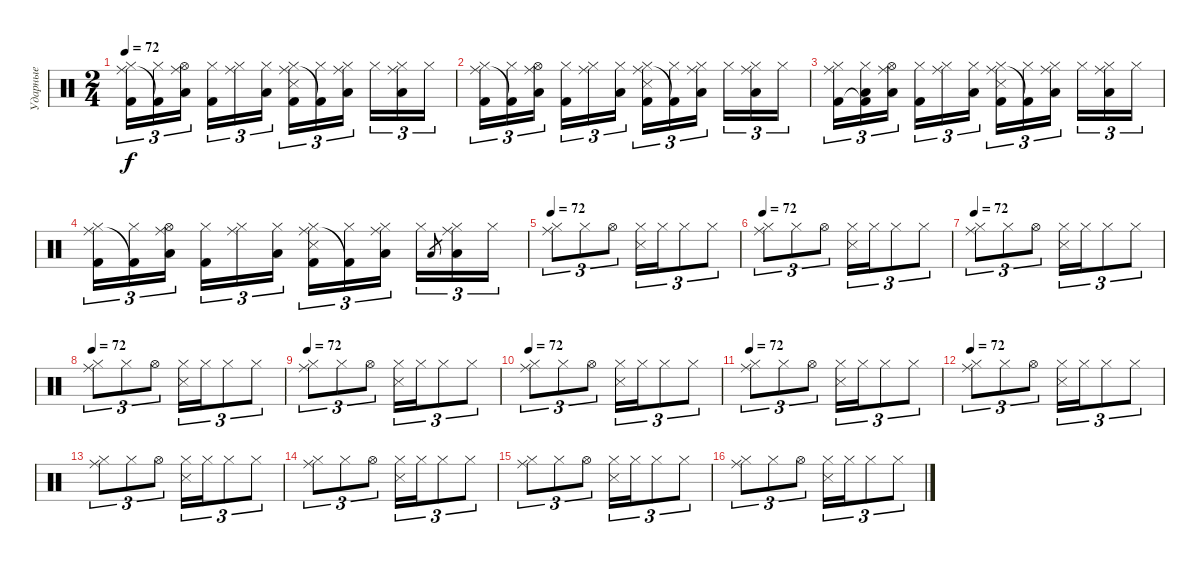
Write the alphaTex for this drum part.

\track ("Ударные" "Ударные") {instrument percussion}
\staff {score}
\articulation defaults
\ts (2 4)
\tempo 72
\clef neutral
\ks c
("Hi-Hat (closed)" "Ride (middle)" "Kick (hit) 2").16{tu (3 2) dy f} ("Hi-Hat (closed)" "Kick (hit) 2"{t}).16{tu (3 2)} ("Hi-Hat (open)" "Ride (middle)" "Low Tom (hit)").16{tu (3 2)} ("Hi-Hat (closed)" "Kick (hit) 2").16{tu (3 2)} ("Hi-Hat (closed)" "Ride (middle)").16{tu (3 2)} ("Hi-Hat (closed)" "Low Tom (hit)").16{tu (3 2)} ("Hi-Hat (closed)" "Ride (middle)" "Snare (side stick) 3" "Kick (hit) 2").16{tu (3 2)} ("Hi-Hat (closed)" "Kick (hit) 2"{t}).16{tu (3 2)} ("Hi-Hat (closed)" "Ride (middle)" "Low Tom (hit)").16{tu (3 2)} "Hi-Hat (closed)".16{tu (3 2)} ("Hi-Hat (closed)" "Ride (middle)" "Low Tom (hit)").16{tu (3 2)} "Hi-Hat (closed)".16{tu (3 2)} |
("Hi-Hat (closed)" "Ride (middle)" "Kick (hit) 2").16{tu (3 2)} ("Hi-Hat (closed)" "Kick (hit) 2"{t}).16{tu (3 2)} ("Hi-Hat (open)" "Ride (middle)" "Low Tom (hit)").16{tu (3 2)} ("Hi-Hat (closed)" "Kick (hit) 2").16{tu (3 2)} ("Hi-Hat (closed)" "Ride (middle)").16{tu (3 2)} ("Hi-Hat (closed)" "Low Tom (hit)").16{tu (3 2)} ("Hi-Hat (closed)" "Ride (middle)" "Snare (side stick) 3" "Kick (hit) 2").16{tu (3 2)} ("Hi-Hat (closed)" "Kick (hit) 2"{t}).16{tu (3 2)} ("Hi-Hat (closed)" "Ride (middle)" "Low Tom (hit)").16{tu (3 2)} "Hi-Hat (closed)".16{tu (3 2)} ("Hi-Hat (closed)" "Ride (middle)" "Low Tom (hit)").16{tu (3 2)} "Hi-Hat (closed)".16{tu (3 2)} |
("Hi-Hat (closed)" "Ride (middle)" "Kick (hit) 2").16{tu (3 2)} ("Hi-Hat (closed)" "Low Tom (hit)" "Kick (hit) 2"{t}).16{tu (3 2)} ("Hi-Hat (open)" "Ride (middle)" "Low Tom (hit)").16{tu (3 2)} ("Hi-Hat (closed)" "Kick (hit) 2").16{tu (3 2)} ("Hi-Hat (closed)" "Ride (middle)").16{tu (3 2)} ("Hi-Hat (closed)" "Low Tom (hit)").16{tu (3 2)} ("Hi-Hat (closed)" "Ride (middle)" "Snare (side stick) 3" "Kick (hit) 2").16{tu (3 2)} ("Hi-Hat (closed)" "Kick (hit) 2"{t}).16{tu (3 2)} ("Hi-Hat (closed)" "Ride (middle)" "Low Tom (hit)").16{tu (3 2)} "Hi-Hat (closed)".16{tu (3 2)} ("Hi-Hat (closed)" "Ride (middle)" "Low Tom (hit)").16{tu (3 2)} "Hi-Hat (closed)".16{tu (3 2)} |
("Hi-Hat (closed)" "Ride (middle)" "Kick (hit) 2").16{tu (3 2)} ("Hi-Hat (closed)" "Kick (hit) 2"{t}).16{tu (3 2)} ("Hi-Hat (open)" "Ride (middle)" "Low Tom (hit)").16{tu (3 2)} ("Hi-Hat (closed)" "Kick (hit) 2").16{tu (3 2)} ("Hi-Hat (closed)" "Ride (middle)").16{tu (3 2)} ("Hi-Hat (closed)" "Low Tom (hit)").16{tu (3 2)} ("Hi-Hat (closed)" "Ride (middle)" "Snare (side stick) 3" "Kick (hit) 2").16{tu (3 2)} ("Hi-Hat (closed)" "Kick (hit) 2"{t}).16{tu (3 2)} ("Hi-Hat (closed)" "Ride (middle)" "Low Tom (hit)").16{tu (3 2)} "Hi-Hat (closed)".16{tu (3 2)} "Low Tom (hit)".8{gr} ("Hi-Hat (closed)" "Ride (middle)" "Low Tom (hit)"{tr (24 16)}).16{tu (3 2)} "Hi-Hat (closed)".16{tu (3 2)} |
\tempo 72
("Hi-Hat (closed)" "Ride (middle)").8{tu (3 2)} "Hi-Hat (closed)".8{tu (3 2)} "Hi-Hat (open)".8{tu (3 2)} ("Hi-Hat (closed)" "Snare (side stick) 3").16{tu (3 2)} "Hi-Hat (closed)".16{tu (3 2)} "Hi-Hat (closed)".8{tu (3 2)} "Hi-Hat (closed)".8{tu (3 2)} |
\tempo 72
("Hi-Hat (closed)" "Ride (middle)").8{tu (3 2)} "Hi-Hat (closed)".8{tu (3 2)} "Hi-Hat (open)".8{tu (3 2)} ("Hi-Hat (closed)" "Snare (side stick) 3").16{tu (3 2)} "Hi-Hat (closed)".16{tu (3 2)} "Hi-Hat (closed)".8{tu (3 2)} "Hi-Hat (closed)".8{tu (3 2)} |
\tempo 72
("Hi-Hat (closed)" "Ride (middle)").8{tu (3 2)} "Hi-Hat (closed)".8{tu (3 2)} "Hi-Hat (open)".8{tu (3 2)} ("Hi-Hat (closed)" "Snare (side stick) 3").16{tu (3 2)} "Hi-Hat (closed)".16{tu (3 2)} "Hi-Hat (closed)".8{tu (3 2)} "Hi-Hat (closed)".8{tu (3 2)} |
\tempo 72
("Hi-Hat (closed)" "Ride (middle)").8{tu (3 2)} "Hi-Hat (closed)".8{tu (3 2)} "Hi-Hat (open)".8{tu (3 2)} ("Hi-Hat (closed)" "Snare (side stick) 3").16{tu (3 2)} "Hi-Hat (closed)".16{tu (3 2)} "Hi-Hat (closed)".8{tu (3 2)} "Hi-Hat (closed)".8{tu (3 2)} |
\tempo 72
("Hi-Hat (closed)" "Ride (middle)").8{tu (3 2)} "Hi-Hat (closed)".8{tu (3 2)} "Hi-Hat (open)".8{tu (3 2)} ("Hi-Hat (closed)" "Snare (side stick) 3").16{tu (3 2)} "Hi-Hat (closed)".16{tu (3 2)} "Hi-Hat (closed)".8{tu (3 2)} "Hi-Hat (closed)".8{tu (3 2)} |
\tempo 72
("Hi-Hat (closed)" "Ride (middle)").8{tu (3 2)} "Hi-Hat (closed)".8{tu (3 2)} "Hi-Hat (open)".8{tu (3 2)} ("Hi-Hat (closed)" "Snare (side stick) 3").16{tu (3 2)} "Hi-Hat (closed)".16{tu (3 2)} "Hi-Hat (closed)".8{tu (3 2)} "Hi-Hat (closed)".8{tu (3 2)} |
\tempo 72
("Hi-Hat (closed)" "Ride (middle)").8{tu (3 2)} "Hi-Hat (closed)".8{tu (3 2)} "Hi-Hat (open)".8{tu (3 2)} ("Hi-Hat (closed)" "Snare (side stick) 3").16{tu (3 2)} "Hi-Hat (closed)".16{tu (3 2)} "Hi-Hat (closed)".8{tu (3 2)} "Hi-Hat (closed)".8{tu (3 2)} |
\tempo 72
("Hi-Hat (closed)" "Ride (middle)").8{tu (3 2)} "Hi-Hat (closed)".8{tu (3 2)} "Hi-Hat (open)".8{tu (3 2)} ("Hi-Hat (closed)" "Snare (side stick) 3").16{tu (3 2)} "Hi-Hat (closed)".16{tu (3 2)} "Hi-Hat (closed)".8{tu (3 2)} "Hi-Hat (closed)".8{tu (3 2)} |
("Hi-Hat (closed)" "Ride (middle)").8{tu (3 2)} "Hi-Hat (closed)".8{tu (3 2)} "Hi-Hat (open)".8{tu (3 2)} ("Hi-Hat (closed)" "Snare (side stick) 3").16{tu (3 2)} "Hi-Hat (closed)".16{tu (3 2)} "Hi-Hat (closed)".8{tu (3 2)} "Hi-Hat (closed)".8{tu (3 2)} |
("Hi-Hat (closed)" "Ride (middle)").8{tu (3 2)} "Hi-Hat (closed)".8{tu (3 2)} "Hi-Hat (open)".8{tu (3 2)} ("Hi-Hat (closed)" "Snare (side stick) 3").16{tu (3 2)} "Hi-Hat (closed)".16{tu (3 2)} "Hi-Hat (closed)".8{tu (3 2)} "Hi-Hat (closed)".8{tu (3 2)} |
("Hi-Hat (closed)" "Ride (middle)").8{tu (3 2)} "Hi-Hat (closed)".8{tu (3 2)} "Hi-Hat (open)".8{tu (3 2)} ("Hi-Hat (closed)" "Snare (side stick) 3").16{tu (3 2)} "Hi-Hat (closed)".16{tu (3 2)} "Hi-Hat (closed)".8{tu (3 2)} "Hi-Hat (closed)".8{tu (3 2)} |
("Hi-Hat (closed)" "Ride (middle)").8{tu (3 2)} "Hi-Hat (closed)".8{tu (3 2)} "Hi-Hat (open)".8{tu (3 2)} ("Hi-Hat (closed)" "Snare (side stick) 3").16{tu (3 2)} "Hi-Hat (closed)".16{tu (3 2)} "Hi-Hat (closed)".8{tu (3 2)} "Hi-Hat (closed)".8{tu (3 2)}
